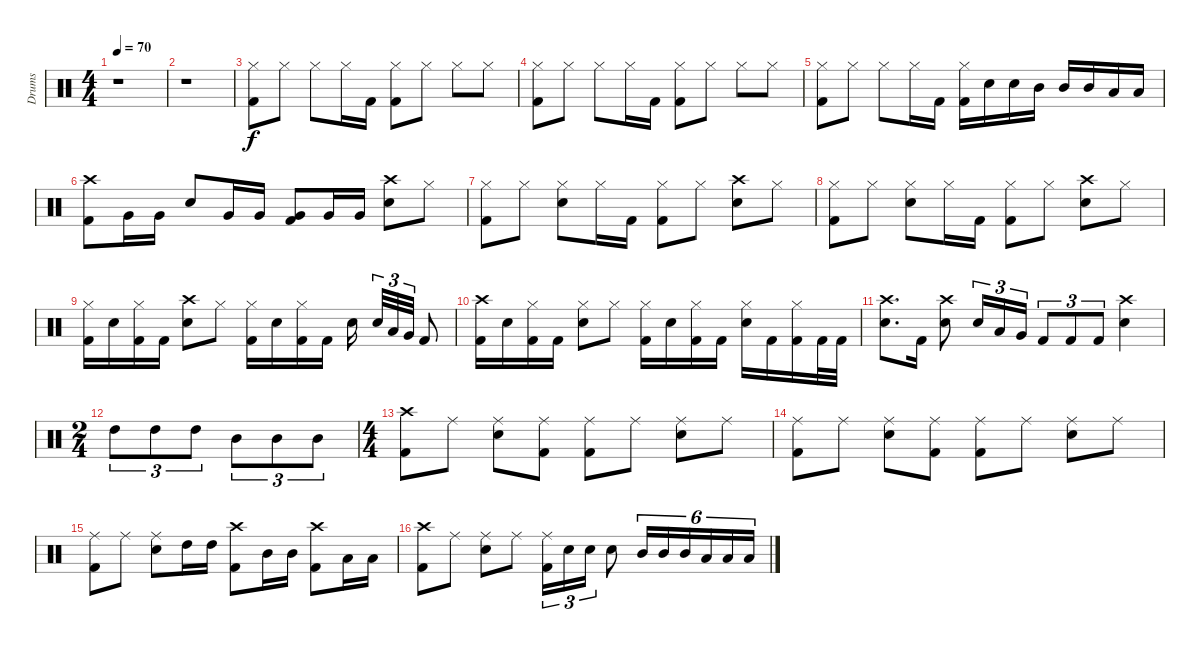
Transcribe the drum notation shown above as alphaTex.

\track ("Drums" "Drums") {instrument percussion}
\staff {score}
\articulation defaults
\ts (4 4)
\tempo 70
\clef neutral
\ks c
r.1{dy f} |
r.1 |
("Hi-Hat (closed)" "Kick (hit) 2").8 "Hi-Hat (closed)".8 "Hi-Hat (closed)".8 "Hi-Hat (closed)".16 "Kick (hit) 2".16 ("Hi-Hat (closed)" "Kick (hit) 2").8 "Hi-Hat (closed)".8 "Hi-Hat (closed)".8 "Hi-Hat (closed)".8 |
("Hi-Hat (closed)" "Kick (hit) 2").8 "Hi-Hat (closed)".8 "Hi-Hat (closed)".8 "Hi-Hat (closed)".16 "Kick (hit) 2".16 ("Hi-Hat (closed)" "Kick (hit) 2").8 "Hi-Hat (closed)".8 "Hi-Hat (closed)".8 "Hi-Hat (closed)".8 |
("Hi-Hat (closed)" "Kick (hit) 2").8 "Hi-Hat (closed)".8 "Hi-Hat (closed)".8 "Hi-Hat (closed)".16 "Kick (hit) 2".16 ("Hi-Hat (closed)" "Kick (hit) 2").16 "Electric Snare (hit)".16 "Electric Snare (hit)".16 "Mid Tom (hit)".16 "Mid Tom (hit)".16 "Mid Tom (hit)".16 "Low Tom (hit)".16 "Low Tom (hit)".16 |
("Crash high (hit)" "Kick (hit) 2").8 "Very Low Tom (hit)".16 "Very Low Tom (hit)".16 "Electric Snare (hit)".8 "Very Low Tom (hit)".16 "Very Low Tom (hit)".16 ("Very Low Tom (hit)" "Kick (hit) 2").8 "Very Low Tom (hit)".16 "Very Low Tom (hit)".16 ("Crash high (hit)" "Electric Snare (hit)").8 "Hi-Hat (closed)".8 |
("Hi-Hat (closed)" "Kick (hit) 2").8 "Hi-Hat (closed)".8 ("Hi-Hat (closed)" "Electric Snare (hit)").8 "Hi-Hat (closed)".16 "Kick (hit) 2".16 ("Hi-Hat (closed)" "Kick (hit) 2").8 "Hi-Hat (closed)".8 ("Crash high (hit)" "Electric Snare (hit)").8 "Hi-Hat (closed)".8 |
("Hi-Hat (closed)" "Kick (hit) 2").8 "Hi-Hat (closed)".8 ("Hi-Hat (closed)" "Electric Snare (hit)").8 "Hi-Hat (closed)".16 "Kick (hit) 2".16 ("Hi-Hat (closed)" "Kick (hit) 2").8 "Hi-Hat (closed)".8 ("Crash high (hit)" "Electric Snare (hit)").8 "Hi-Hat (closed)".8 |
("Hi-Hat (closed)" "Kick (hit) 2").16 "Electric Snare (hit)".16 ("Hi-Hat (closed)" "Kick (hit) 2").16 "Kick (hit) 2".16 ("Crash high (hit)" "Electric Snare (hit)").8 "Hi-Hat (closed)".8 ("Hi-Hat (closed)" "Kick (hit) 2").16 "Electric Snare (hit)".16 ("Hi-Hat (closed)" "Kick (hit) 2").16 "Kick (hit) 2".16 "Electric Snare (hit)".16 "Electric Snare (hit)".32{tu (3 2)} "Low Tom (hit)".32{tu (3 2)} "Very Low Tom (hit)".32{tu (3 2)} "Kick (hit) 2".8 |
("Crash high (hit)" "Kick (hit) 2").16 "Electric Snare (hit)".16 ("Hi-Hat (closed)" "Kick (hit) 2").16 "Kick (hit) 2".16 ("Hi-Hat (closed)" "Electric Snare (hit)").8 "Hi-Hat (closed)".8 ("Hi-Hat (closed)" "Kick (hit) 2").16 "Electric Snare (hit)".16 ("Hi-Hat (closed)" "Kick (hit) 2").16 "Kick (hit) 2".16 ("Hi-Hat (closed)" "Electric Snare (hit)").16 "Kick (hit) 2".16 ("Hi-Hat (closed)" "Kick (hit) 2").16 "Kick (hit) 2".32 "Kick (hit) 2".32 |
("Crash high (hit)" "Electric Snare (hit)").8{d} "Kick (hit) 2".16 ("Crash high (hit)" "Electric Snare (hit)").8 "Electric Snare (hit)".16{tu (3 2)} "Low Tom (hit)".16{tu (3 2)} "Very Low Tom (hit)".16{tu (3 2)} "Kick (hit) 2".8{tu (3 2)} "Kick (hit) 2".8{tu (3 2)} "Kick (hit) 2".8{tu (3 2)} ("Crash high (hit)" "Electric Snare (hit)").4 |
\ts (2 4)
"High Tom (hit)".8{tu (3 2)} "High Tom (hit)".8{tu (3 2)} "High Tom (hit)".8{tu (3 2)} "Mid Tom (hit)".8{tu (3 2)} "Mid Tom (hit)".8{tu (3 2)} "Mid Tom (hit)".8{tu (3 2)} |
\ts (4 4)
("Crash high (hit)" "Kick (hit) 2").8 "Ride (middle)".8 ("Ride (middle)" "Electric Snare (hit)").8 ("Ride (middle)" "Kick (hit) 2").8 ("Ride (middle)" "Kick (hit) 2").8 "Ride (middle)".8 ("Ride (middle)" "Electric Snare (hit)").8 "Ride (middle)".8 |
("Ride (middle)" "Kick (hit) 2").8 "Ride (middle)".8 ("Ride (middle)" "Electric Snare (hit)").8 ("Ride (middle)" "Kick (hit) 2").8 ("Ride (middle)" "Kick (hit) 2").8 "Ride (middle)".8 ("Ride (middle)" "Electric Snare (hit)").8 "Ride (middle)".8 |
("Ride (middle)" "Kick (hit) 2").8 "Ride (middle)".8 ("Ride (middle)" "Electric Snare (hit)").8 "High Tom (hit)".16 "High Tom (hit)".16 ("Crash high (hit)" "Kick (hit) 2").8 "Mid Tom (hit)".16 "Mid Tom (hit)".16 ("Crash high (hit)" "Kick (hit) 2").8 "Low Tom (hit)".16 "Low Tom (hit)".16 |
("Crash high (hit)" "Kick (hit) 2").8 "Ride (middle)".8 ("Ride (middle)" "Electric Snare (hit)").8 "Ride (middle)".8 ("Ride (middle)" "Kick (hit) 2").16{tu (3 2)} "Electric Snare (hit)".16{tu (3 2)} "Electric Snare (hit)".16{tu (3 2)} "Electric Snare (hit)".8 "Mid Tom (hit)".16{tu (6 4)} "Mid Tom (hit)".16{tu (6 4)} "Mid Tom (hit)".16{tu (6 4)} "Low Tom (hit)".16{tu (6 4)} "Low Tom (hit)".16{tu (6 4)} "Low Tom (hit)".16{tu (6 4)}
